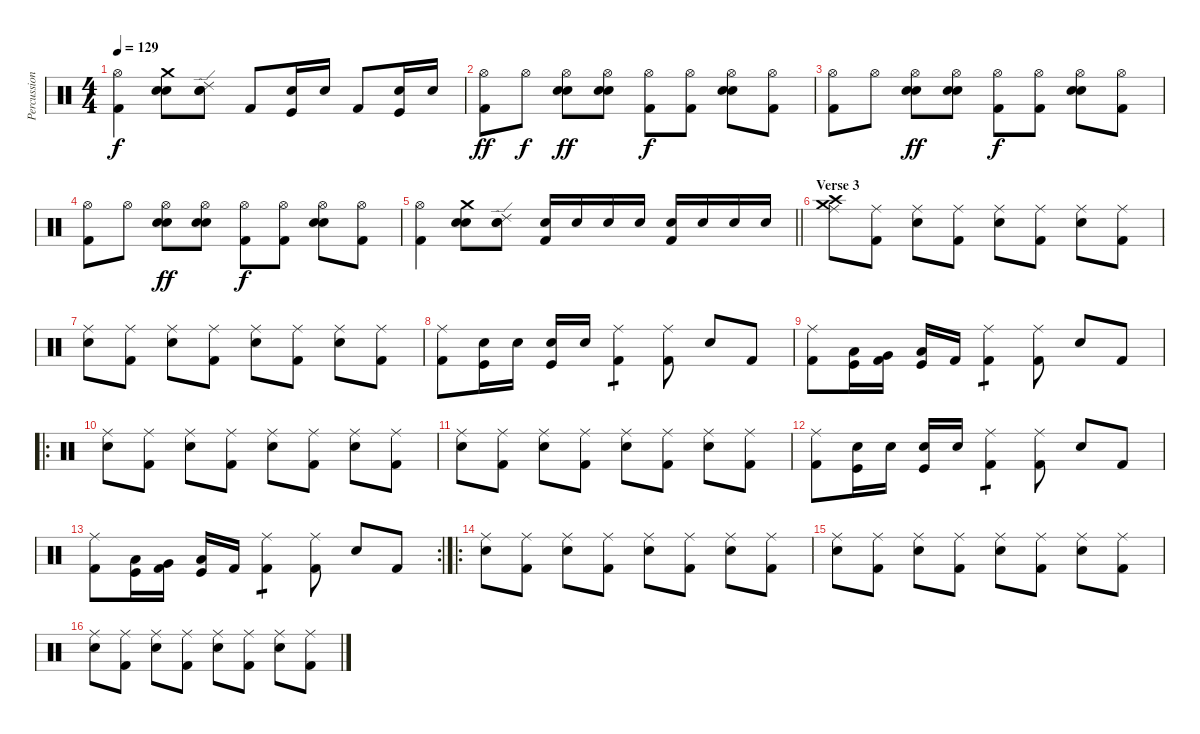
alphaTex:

\track ("Percussion" "Percussion") {instrument percussion}
\staff {score}
\articulation defaults
\ts (4 4)
\tempo 129
\clef neutral
\ks c
("Kick (hit) 2" "Hi-Hat (open)").4{dy f} ("Hand Clap (hit)" "Electric Snare (hit)" "Crash medium (hit)").8 ("Electric Snare (hit)" "Hand Clap (hit)" "Ride (edge) 2").8 "Kick (hit) 2".8 ("Electric Snare (hit)" "Kick (hit)").16 "Electric Snare (hit)".16 "Kick (hit) 2".8 ("Electric Snare (hit)" "Kick (hit)").16 "Electric Snare (hit)".16 |
("Kick (hit) 2" "Hi-Hat (open)").8{dy ff} "Hi-Hat (open)".8{dy f} ("Hand Clap (hit)" "Hi-Hat (open)" "Electric Snare (hit)").8{dy ff} ("Electric Snare (hit)" "Hi-Hat (open)" "Hand Clap (hit)").8 ("Kick (hit) 2" "Hi-Hat (open)").8{dy f} ("Kick (hit) 2" "Hi-Hat (open)").8 ("Electric Snare (hit)" "Hi-Hat (open)" "Hand Clap (hit)").8 ("Kick (hit) 2" "Hi-Hat (open)").8 |
("Kick (hit) 2" "Hi-Hat (open)").8 "Hi-Hat (open)".8 ("Hand Clap (hit)" "Hi-Hat (open)" "Electric Snare (hit)").8{dy ff} ("Electric Snare (hit)" "Hi-Hat (open)" "Hand Clap (hit)").8 ("Kick (hit) 2" "Hi-Hat (open)").8{dy f} ("Kick (hit) 2" "Hi-Hat (open)").8 ("Electric Snare (hit)" "Hi-Hat (open)" "Hand Clap (hit)").8 ("Kick (hit) 2" "Hi-Hat (open)").8 |
("Kick (hit) 2" "Hi-Hat (open)").8 "Hi-Hat (open)".8 ("Hand Clap (hit)" "Hi-Hat (open)" "Electric Snare (hit)").8{dy ff} ("Electric Snare (hit)" "Hi-Hat (open)" "Hand Clap (hit)").8 ("Kick (hit) 2" "Hi-Hat (open)").8{dy f} ("Kick (hit) 2" "Hi-Hat (open)").8 ("Electric Snare (hit)" "Hi-Hat (open)" "Hand Clap (hit)").8 ("Kick (hit) 2" "Hi-Hat (open)").8 |
\barLineRight lightlight
("Kick (hit) 2" "Hi-Hat (open)").4 ("Hand Clap (hit)" "Electric Snare (hit)" "Crash medium (hit)").8 ("Electric Snare (hit)" "Hand Clap (hit)" "Ride (edge) 2").8 ("Electric Snare (hit)" "Kick (hit) 2").16 "Electric Snare (hit)".16 "Electric Snare (hit)".16 "Electric Snare (hit)".16 ("Electric Snare (hit)" "Kick (hit) 2").16 "Electric Snare (hit)".16 "Electric Snare (hit)".16 "Electric Snare (hit)".16 |
\section ("" "Verse 3")
("Crash high (hit)" "Ride (middle)" "Crash medium (hit)").8 ("Kick (hit) 2" "Ride (middle)").8 ("Electric Snare (hit)" "Ride (middle)").8 ("Kick (hit) 2" "Ride (middle)").8 ("Electric Snare (hit)" "Ride (middle)").8 ("Kick (hit) 2" "Ride (middle)").8 ("Electric Snare (hit)" "Ride (middle)").8 ("Kick (hit) 2" "Ride (middle)").8 |
("Electric Snare (hit)" "Ride (middle)").8 ("Kick (hit) 2" "Ride (middle)").8 ("Electric Snare (hit)" "Ride (middle)").8 ("Kick (hit) 2" "Ride (middle)").8 ("Electric Snare (hit)" "Ride (middle)").8 ("Kick (hit) 2" "Ride (middle)").8 ("Electric Snare (hit)" "Ride (middle)").8 ("Kick (hit) 2" "Ride (middle)").8 |
("Kick (hit) 2" "Ride (middle)").8 ("Kick (hit)" "Electric Snare (hit)").16 "Electric Snare (hit)".16 ("Kick (hit)" "Electric Snare (hit)").16 "Electric Snare (hit)".16 ("Kick (hit) 2" "Ride (middle)").4{tp 1} ("Kick (hit) 2" "Ride (middle)").8 "Electric Snare (hit)".8 "Kick (hit) 2".8 |
("Kick (hit) 2" "Ride (middle)").8 ("Kick (hit)" "Low Tom (hit)").16 ("Kick (hit) 2" "Very Low Tom (hit)").16 ("Kick (hit)" "Low Floor Tom (hit)").16 "Kick (hit) 2".16 ("Kick (hit) 2" "Ride (middle)").4{tp 1} ("Kick (hit) 2" "Ride (middle)").8 "Electric Snare (hit)".8 "Kick (hit) 2".8 |
\ro
("Electric Snare (hit)" "Ride (middle)").8 ("Kick (hit) 2" "Ride (middle)").8 ("Electric Snare (hit)" "Ride (middle)").8 ("Kick (hit) 2" "Ride (middle)").8 ("Electric Snare (hit)" "Ride (middle)").8 ("Kick (hit) 2" "Ride (middle)").8 ("Electric Snare (hit)" "Ride (middle)").8 ("Kick (hit) 2" "Ride (middle)").8 |
("Electric Snare (hit)" "Ride (middle)").8 ("Kick (hit) 2" "Ride (middle)").8 ("Electric Snare (hit)" "Ride (middle)").8 ("Kick (hit) 2" "Ride (middle)").8 ("Electric Snare (hit)" "Ride (middle)").8 ("Kick (hit) 2" "Ride (middle)").8 ("Electric Snare (hit)" "Ride (middle)").8 ("Kick (hit) 2" "Ride (middle)").8 |
("Kick (hit) 2" "Ride (middle)").8 ("Kick (hit)" "Electric Snare (hit)").16 "Electric Snare (hit)".16 ("Kick (hit)" "Electric Snare (hit)").16 "Electric Snare (hit)".16 ("Kick (hit) 2" "Ride (middle)").4{tp 1} ("Kick (hit) 2" "Ride (middle)").8 "Electric Snare (hit)".8 "Kick (hit) 2".8 |
\rc 2
("Kick (hit) 2" "Ride (middle)").8 ("Kick (hit)" "Low Tom (hit)").16 ("Kick (hit) 2" "Very Low Tom (hit)").16 ("Kick (hit)" "Low Floor Tom (hit)").16 "Kick (hit) 2".16 ("Kick (hit) 2" "Ride (middle)").4{tp 1} ("Kick (hit) 2" "Ride (middle)").8 "Electric Snare (hit)".8 "Kick (hit) 2".8 |
\ro
("Electric Snare (hit)" "Ride (middle)").8 ("Kick (hit) 2" "Ride (middle)").8 ("Electric Snare (hit)" "Ride (middle)").8 ("Kick (hit) 2" "Ride (middle)").8 ("Electric Snare (hit)" "Ride (middle)").8 ("Kick (hit) 2" "Ride (middle)").8 ("Electric Snare (hit)" "Ride (middle)").8 ("Kick (hit) 2" "Ride (middle)").8 |
("Electric Snare (hit)" "Ride (middle)").8 ("Kick (hit) 2" "Ride (middle)").8 ("Electric Snare (hit)" "Ride (middle)").8 ("Kick (hit) 2" "Ride (middle)").8 ("Electric Snare (hit)" "Ride (middle)").8 ("Kick (hit) 2" "Ride (middle)").8 ("Electric Snare (hit)" "Ride (middle)").8 ("Kick (hit) 2" "Ride (middle)").8 |
("Electric Snare (hit)" "Ride (middle)").8 ("Kick (hit) 2" "Ride (middle)").8 ("Electric Snare (hit)" "Ride (middle)").8 ("Kick (hit) 2" "Ride (middle)").8 ("Electric Snare (hit)" "Ride (middle)").8 ("Kick (hit) 2" "Ride (middle)").8 ("Electric Snare (hit)" "Ride (middle)").8 ("Kick (hit) 2" "Ride (middle)").8
